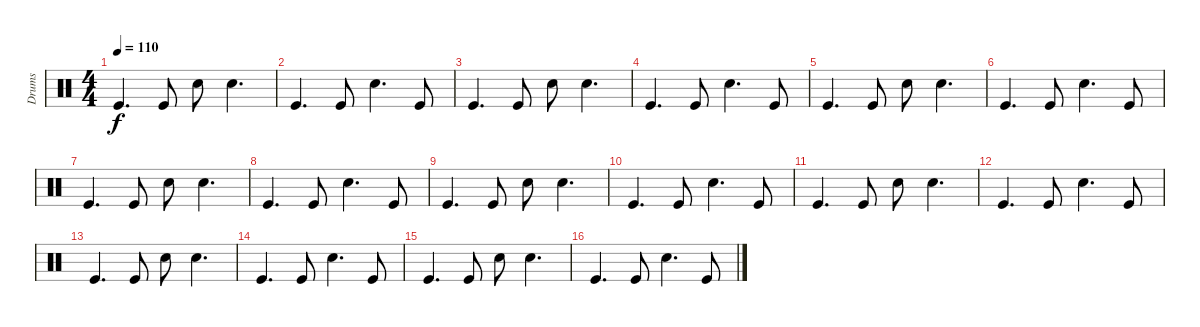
\track ("Drums" "Drums") {instrument percussion}
\staff {score}
\articulation defaults
\ts (4 4)
\tempo 110
\clef neutral
\ks c "Kick (hit)".4{d dy f} "Kick (hit)".8 "Snare (hit) 2".8 "Snare (hit) 2".4{d}
|
"Kick (hit)".4{d} "Kick (hit)".8 "Snare (hit) 2".4{d} "Kick (hit)".8 |
"Kick (hit)".4{d} "Kick (hit)".8 "Snare (hit) 2".8 "Snare (hit) 2".4{d} |
"Kick (hit)".4{d} "Kick (hit)".8 "Snare (hit) 2".4{d} "Kick (hit)".8 |
"Kick (hit)".4{d} "Kick (hit)".8 "Snare (hit) 2".8 "Snare (hit) 2".4{d} |
"Kick (hit)".4{d} "Kick (hit)".8 "Snare (hit) 2".4{d} "Kick (hit)".8 |
"Kick (hit)".4{d} "Kick (hit)".8 "Snare (hit) 2".8 "Snare (hit) 2".4{d} |
"Kick (hit)".4{d} "Kick (hit)".8 "Snare (hit) 2".4{d} "Kick (hit)".8 |
"Kick (hit)".4{d} "Kick (hit)".8 "Snare (hit) 2".8 "Snare (hit) 2".4{d} |
"Kick (hit)".4{d} "Kick (hit)".8 "Snare (hit) 2".4{d} "Kick (hit)".8 |
"Kick (hit)".4{d} "Kick (hit)".8 "Snare (hit) 2".8 "Snare (hit) 2".4{d} |
"Kick (hit)".4{d} "Kick (hit)".8 "Snare (hit) 2".4{d} "Kick (hit)".8 |
"Kick (hit)".4{d} "Kick (hit)".8 "Snare (hit) 2".8 "Snare (hit) 2".4{d} |
"Kick (hit)".4{d} "Kick (hit)".8 "Snare (hit) 2".4{d} "Kick (hit)".8 |
"Kick (hit)".4{d} "Kick (hit)".8 "Snare (hit) 2".8 "Snare (hit) 2".4{d} |
"Kick (hit)".4{d} "Kick (hit)".8 "Snare (hit) 2".4{d} "Kick (hit)".8
